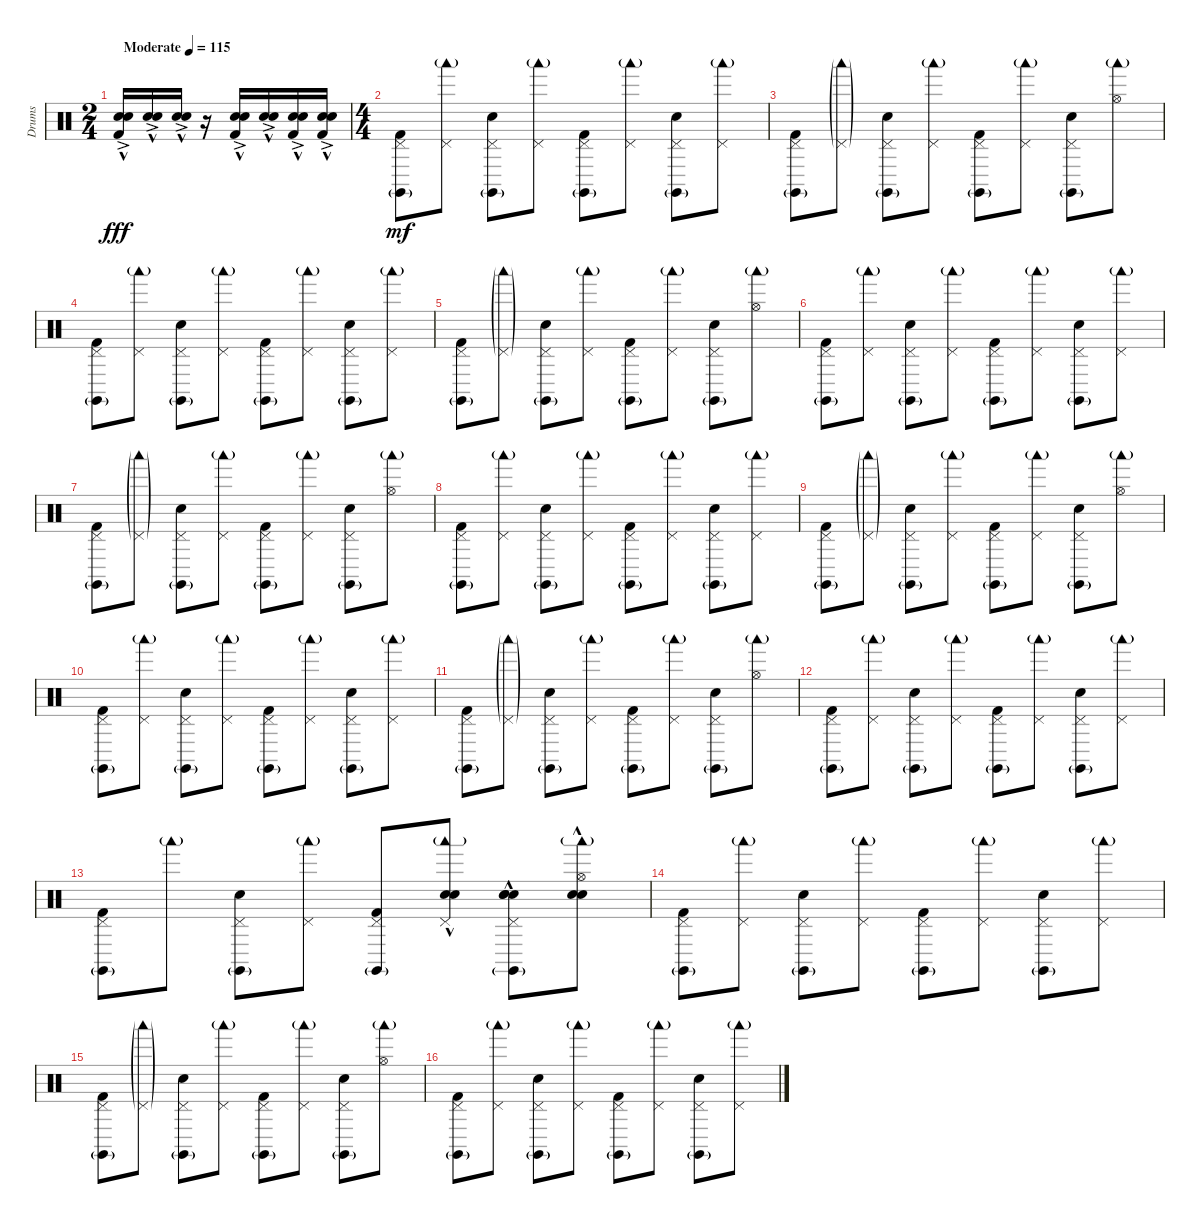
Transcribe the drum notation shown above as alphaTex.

\track ("Drums" "Drums") {instrument percussion}
\staff {score}
\articulation defaults
\ts (2 4)
\tempo (115 "Moderate")
\clef neutral
\ks c
("Electric Snare (hit)"{ac} "Electric Snare (hit)"{hac} "Kick (hit) 2"{hac}).16{dy fff} ("Electric Snare (hit)"{ac} "Electric Snare (hit)"{hac}).16 ("Electric Snare (hit)"{ac} "Electric Snare (hit)"{hac}).16 r.16 ("Electric Snare (hit)"{ac} "Electric Snare (hit)"{hac} "Kick (hit) 2"{hac}).16 ("Electric Snare (hit)"{ac} "Electric Snare (hit)"{hac}).16 ("Electric Snare (hit)"{ac} "Electric Snare (hit)"{hac} "Kick (hit) 2"{hac}).16 ("Electric Snare (hit)"{ac} "Electric Snare (hit)"{hac} "Kick (hit) 2"{hac}).16 |
\ts (4 4)
("Claves (hit)"{g} "Pedal Hi-Hat (hit)" "Kick (hit) 2").8{dy mf} ("Woodblock low (hit)"{g} "Pedal Hi-Hat (hit)").8 ("Claves (hit)"{g} "Pedal Hi-Hat (hit)" "Electric Snare (hit)").8 ("Woodblock low (hit)"{g} "Pedal Hi-Hat (hit)").8 ("Claves (hit)"{g} "Pedal Hi-Hat (hit)" "Kick (hit) 2").8 ("Woodblock low (hit)"{g} "Pedal Hi-Hat (hit)").8 ("Claves (hit)"{g} "Pedal Hi-Hat (hit)" "Electric Snare (hit)").8 ("Woodblock low (hit)"{g} "Pedal Hi-Hat (hit)").8 |
("Claves (hit)"{g} "Pedal Hi-Hat (hit)" "Kick (hit) 2").8 ("Woodblock low (hit)"{g} "Pedal Hi-Hat (hit)"{g}).8 ("Claves (hit)"{g} "Pedal Hi-Hat (hit)" "Electric Snare (hit)").8 ("Woodblock low (hit)"{g} "Pedal Hi-Hat (hit)").8 ("Claves (hit)"{g} "Pedal Hi-Hat (hit)" "Kick (hit) 2").8 ("Woodblock low (hit)"{g} "Pedal Hi-Hat (hit)").8 ("Claves (hit)"{g} "Pedal Hi-Hat (hit)" "Electric Snare (hit)").8 ("Woodblock low (hit)"{g} "Hi-Hat (open)").8 |
("Claves (hit)"{g} "Pedal Hi-Hat (hit)" "Kick (hit) 2").8 ("Woodblock low (hit)"{g} "Pedal Hi-Hat (hit)").8 ("Claves (hit)"{g} "Pedal Hi-Hat (hit)" "Electric Snare (hit)").8 ("Woodblock low (hit)"{g} "Pedal Hi-Hat (hit)").8 ("Claves (hit)"{g} "Pedal Hi-Hat (hit)" "Kick (hit) 2").8 ("Woodblock low (hit)"{g} "Pedal Hi-Hat (hit)").8 ("Claves (hit)"{g} "Pedal Hi-Hat (hit)" "Electric Snare (hit)").8 ("Woodblock low (hit)"{g} "Pedal Hi-Hat (hit)").8 |
("Claves (hit)"{g} "Pedal Hi-Hat (hit)" "Kick (hit) 2").8 ("Woodblock low (hit)"{g} "Pedal Hi-Hat (hit)"{g}).8 ("Claves (hit)"{g} "Pedal Hi-Hat (hit)" "Electric Snare (hit)").8 ("Woodblock low (hit)"{g} "Pedal Hi-Hat (hit)").8 ("Claves (hit)"{g} "Pedal Hi-Hat (hit)" "Kick (hit) 2").8 ("Woodblock low (hit)"{g} "Pedal Hi-Hat (hit)").8 ("Claves (hit)"{g} "Pedal Hi-Hat (hit)" "Electric Snare (hit)").8 ("Woodblock low (hit)"{g} "Hi-Hat (open)").8 |
("Claves (hit)"{g} "Pedal Hi-Hat (hit)" "Kick (hit) 2").8 ("Woodblock low (hit)"{g} "Pedal Hi-Hat (hit)").8 ("Claves (hit)"{g} "Pedal Hi-Hat (hit)" "Electric Snare (hit)").8 ("Woodblock low (hit)"{g} "Pedal Hi-Hat (hit)").8 ("Claves (hit)"{g} "Pedal Hi-Hat (hit)" "Kick (hit) 2").8 ("Woodblock low (hit)"{g} "Pedal Hi-Hat (hit)").8 ("Claves (hit)"{g} "Pedal Hi-Hat (hit)" "Electric Snare (hit)").8 ("Woodblock low (hit)"{g} "Pedal Hi-Hat (hit)").8 |
("Claves (hit)"{g} "Pedal Hi-Hat (hit)" "Kick (hit) 2").8 ("Woodblock low (hit)"{g} "Pedal Hi-Hat (hit)"{g}).8 ("Claves (hit)"{g} "Pedal Hi-Hat (hit)" "Electric Snare (hit)").8 ("Woodblock low (hit)"{g} "Pedal Hi-Hat (hit)").8 ("Claves (hit)"{g} "Pedal Hi-Hat (hit)" "Kick (hit) 2").8 ("Woodblock low (hit)"{g} "Pedal Hi-Hat (hit)").8 ("Claves (hit)"{g} "Pedal Hi-Hat (hit)" "Electric Snare (hit)").8 ("Woodblock low (hit)"{g} "Hi-Hat (open)").8 |
("Claves (hit)"{g} "Pedal Hi-Hat (hit)" "Kick (hit) 2").8 ("Woodblock low (hit)"{g} "Pedal Hi-Hat (hit)").8 ("Claves (hit)"{g} "Pedal Hi-Hat (hit)" "Electric Snare (hit)").8 ("Woodblock low (hit)"{g} "Pedal Hi-Hat (hit)").8 ("Claves (hit)"{g} "Pedal Hi-Hat (hit)" "Kick (hit) 2").8 ("Woodblock low (hit)"{g} "Pedal Hi-Hat (hit)").8 ("Claves (hit)"{g} "Pedal Hi-Hat (hit)" "Electric Snare (hit)").8 ("Woodblock low (hit)"{g} "Pedal Hi-Hat (hit)").8 |
("Claves (hit)"{g} "Pedal Hi-Hat (hit)" "Kick (hit) 2").8 ("Woodblock low (hit)"{g} "Pedal Hi-Hat (hit)"{g}).8 ("Claves (hit)"{g} "Pedal Hi-Hat (hit)" "Electric Snare (hit)").8 ("Woodblock low (hit)"{g} "Pedal Hi-Hat (hit)").8 ("Claves (hit)"{g} "Pedal Hi-Hat (hit)" "Kick (hit) 2").8 ("Woodblock low (hit)"{g} "Pedal Hi-Hat (hit)").8 ("Claves (hit)"{g} "Pedal Hi-Hat (hit)" "Electric Snare (hit)").8 ("Woodblock low (hit)"{g} "Hi-Hat (open)").8 |
("Claves (hit)"{g} "Pedal Hi-Hat (hit)" "Kick (hit) 2").8 ("Woodblock low (hit)"{g} "Pedal Hi-Hat (hit)").8 ("Claves (hit)"{g} "Pedal Hi-Hat (hit)" "Electric Snare (hit)").8 ("Woodblock low (hit)"{g} "Pedal Hi-Hat (hit)").8 ("Claves (hit)"{g} "Pedal Hi-Hat (hit)" "Kick (hit) 2").8 ("Woodblock low (hit)"{g} "Pedal Hi-Hat (hit)").8 ("Claves (hit)"{g} "Pedal Hi-Hat (hit)" "Electric Snare (hit)").8 ("Woodblock low (hit)"{g} "Pedal Hi-Hat (hit)").8 |
("Claves (hit)"{g} "Pedal Hi-Hat (hit)" "Kick (hit) 2").8 ("Woodblock low (hit)"{g} "Pedal Hi-Hat (hit)"{g}).8 ("Claves (hit)"{g} "Pedal Hi-Hat (hit)" "Electric Snare (hit)").8 ("Woodblock low (hit)"{g} "Pedal Hi-Hat (hit)").8 ("Claves (hit)"{g} "Pedal Hi-Hat (hit)" "Kick (hit) 2").8 ("Woodblock low (hit)"{g} "Pedal Hi-Hat (hit)").8 ("Claves (hit)"{g} "Pedal Hi-Hat (hit)" "Electric Snare (hit)").8 ("Woodblock low (hit)"{g} "Hi-Hat (open)").8 |
("Claves (hit)"{g} "Pedal Hi-Hat (hit)" "Kick (hit) 2").8 ("Woodblock low (hit)"{g} "Pedal Hi-Hat (hit)").8 ("Claves (hit)"{g} "Pedal Hi-Hat (hit)" "Electric Snare (hit)").8 ("Woodblock low (hit)"{g} "Pedal Hi-Hat (hit)").8 ("Claves (hit)"{g} "Pedal Hi-Hat (hit)" "Kick (hit) 2").8 ("Woodblock low (hit)"{g} "Pedal Hi-Hat (hit)").8 ("Claves (hit)"{g} "Pedal Hi-Hat (hit)" "Electric Snare (hit)").8 ("Woodblock low (hit)"{g} "Pedal Hi-Hat (hit)").8 |
("Claves (hit)"{g} "Pedal Hi-Hat (hit)" "Kick (hit) 2").8 "Woodblock low (hit)"{g}.8 ("Claves (hit)"{g} "Pedal Hi-Hat (hit)" "Electric Snare (hit)").8 ("Woodblock low (hit)"{g} "Pedal Hi-Hat (hit)").8 ("Claves (hit)"{g} "Pedal Hi-Hat (hit)" "Kick (hit) 2").8 ("Woodblock low (hit)"{g} "Hand Clap (hit)"{hac} "Pedal Hi-Hat (hit)" "Hand Clap (hit)"{hac}).8 ("Claves (hit)"{g} "Hand Clap (hit)"{hac} "Pedal Hi-Hat (hit)" "Electric Snare (hit)" "Hand Clap (hit)"{hac}).8 ("Woodblock low (hit)"{g} "Hand Clap (hit)"{hac} "Hi-Hat (open)" "Hand Clap (hit)"{hac}).8 |
("Claves (hit)"{g} "Pedal Hi-Hat (hit)" "Kick (hit) 2").8 ("Woodblock low (hit)"{g} "Pedal Hi-Hat (hit)").8 ("Claves (hit)"{g} "Pedal Hi-Hat (hit)" "Electric Snare (hit)").8 ("Woodblock low (hit)"{g} "Pedal Hi-Hat (hit)").8 ("Claves (hit)"{g} "Pedal Hi-Hat (hit)" "Kick (hit) 2").8 ("Woodblock low (hit)"{g} "Pedal Hi-Hat (hit)").8 ("Claves (hit)"{g} "Pedal Hi-Hat (hit)" "Electric Snare (hit)").8 ("Woodblock low (hit)"{g} "Pedal Hi-Hat (hit)").8 |
("Claves (hit)"{g} "Pedal Hi-Hat (hit)" "Kick (hit) 2").8 ("Woodblock low (hit)"{g} "Pedal Hi-Hat (hit)"{g}).8 ("Claves (hit)"{g} "Pedal Hi-Hat (hit)" "Electric Snare (hit)").8 ("Woodblock low (hit)"{g} "Pedal Hi-Hat (hit)").8 ("Claves (hit)"{g} "Pedal Hi-Hat (hit)" "Kick (hit) 2").8 ("Woodblock low (hit)"{g} "Pedal Hi-Hat (hit)").8 ("Claves (hit)"{g} "Pedal Hi-Hat (hit)" "Electric Snare (hit)").8 ("Woodblock low (hit)"{g} "Hi-Hat (open)").8 |
("Claves (hit)"{g} "Pedal Hi-Hat (hit)" "Kick (hit) 2").8 ("Woodblock low (hit)"{g} "Pedal Hi-Hat (hit)").8 ("Claves (hit)"{g} "Pedal Hi-Hat (hit)" "Electric Snare (hit)").8 ("Woodblock low (hit)"{g} "Pedal Hi-Hat (hit)").8 ("Claves (hit)"{g} "Pedal Hi-Hat (hit)" "Kick (hit) 2").8 ("Woodblock low (hit)"{g} "Pedal Hi-Hat (hit)").8 ("Claves (hit)"{g} "Pedal Hi-Hat (hit)" "Electric Snare (hit)").8 ("Woodblock low (hit)"{g} "Pedal Hi-Hat (hit)").8
